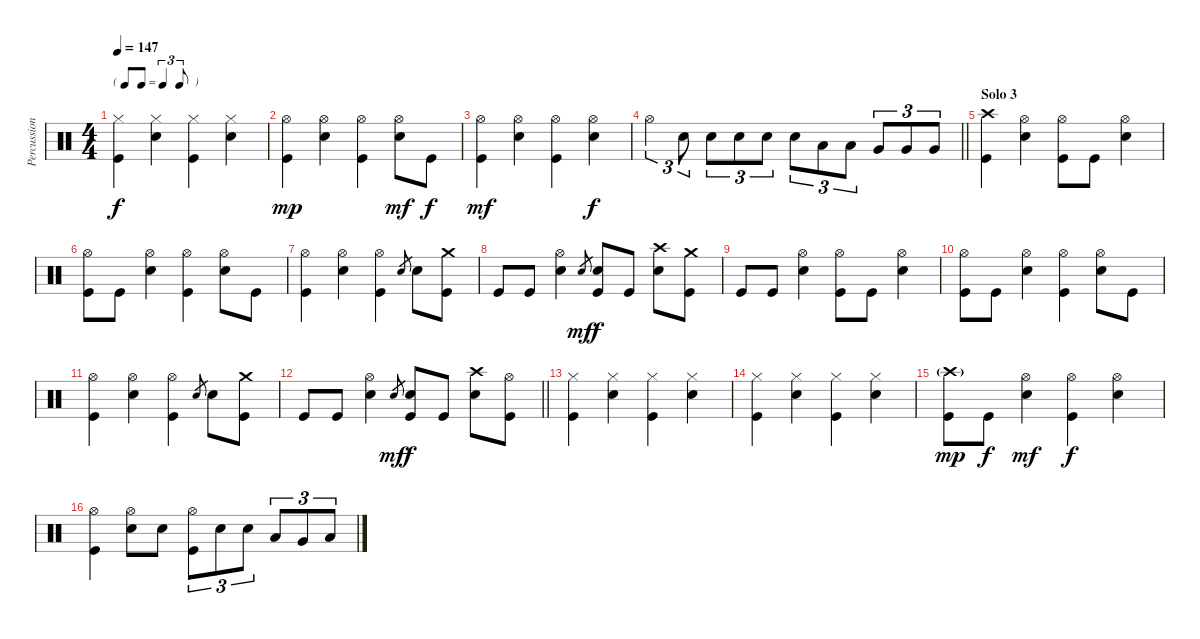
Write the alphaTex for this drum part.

\track ("Percussion" "Percussion") {instrument percussion}
\staff {score}
\articulation defaults
\ts (4 4)
\tf triplet8th
\tempo 147
\clef neutral
\ks c
("Kick (hit)" "Hi-Hat (closed)").4{dy f} ("Hi-Hat (closed)" "Snare (hit) 2").4 ("Kick (hit)" "Hi-Hat (closed)").4 ("Hi-Hat (closed)" "Snare (hit) 2").4 |
("Kick (hit)" "Hi-Hat (open)").4{dy mp} ("Hi-Hat (open)" "Snare (hit) 2").4 ("Kick (hit)" "Hi-Hat (open)").4 ("Hi-Hat (open)" "Snare (hit) 2").8{dy mf} "Kick (hit)".8{dy f} |
("Kick (hit)" "Hi-Hat (open)").4{dy mf} ("Hi-Hat (open)" "Snare (hit) 2").4 ("Kick (hit)" "Hi-Hat (open)").4 ("Hi-Hat (open)" "Snare (hit) 2").4{dy f} |
\barLineRight lightlight "Hi-Hat (open)".4{tu (3 2)} "Snare (hit) 2".8{tu (3 2)} "Snare (hit) 2".8{tu (3 2)} "Snare (hit) 2".8{tu (3 2)} "Snare (hit) 2".8{tu (3 2)} "Snare (hit) 2".8{tu (3 2)} "Low Tom (hit)".8{tu (3 2)} "Low Tom (hit)".8{tu (3 2)} "Very Low Tom (hit)".8{tu (3 2)} "Very Low Tom (hit)".8{tu (3 2)} "Very Low Tom (hit)".8{tu (3 2)}
|
\section ("" "Solo 3")
("Kick (hit)" "Crash high (hit)").4 ("Hi-Hat (open)" "Snare (hit) 2").4 ("Kick (hit)" "Hi-Hat (open)").8 "Kick (hit)".8 ("Hi-Hat (open)" "Snare (hit) 2").4 |
("Kick (hit)" "Hi-Hat (open)").8 "Kick (hit)".8 ("Hi-Hat (open)" "Snare (hit) 2").4 ("Kick (hit)" "Hi-Hat (open)").4 ("Hi-Hat (open)" "Snare (hit) 2").8 "Kick (hit)".8 |
("Kick (hit)" "Hi-Hat (open)").4 ("Hi-Hat (open)" "Snare (hit) 2").4 ("Kick (hit)" "Hi-Hat (open)").4 "Snare (hit) 2".8{gr} "Snare (hit) 2".8 ("Kick (hit)" "Crash medium (hit)").8 |
"Kick (hit)".8 "Kick (hit)".8 ("Hi-Hat (open)" "Snare (hit) 2").4 "Snare (hit) 2".8{gr dy mf} ("Kick (hit)" "Snare (hit) 2").8{dy f} "Kick (hit)".8 ("Crash high (hit)" "Snare (hit) 2").8 ("Kick (hit)" "Crash medium (hit)").8 |
"Kick (hit)".8 "Kick (hit)".8 ("Hi-Hat (open)" "Snare (hit) 2").4 ("Kick (hit)" "Hi-Hat (open)").8 "Kick (hit)".8 ("Hi-Hat (open)" "Snare (hit) 2").4 |
("Kick (hit)" "Hi-Hat (open)").8 "Kick (hit)".8 ("Hi-Hat (open)" "Snare (hit) 2").4 ("Kick (hit)" "Hi-Hat (open)").4 ("Hi-Hat (open)" "Snare (hit) 2").8 "Kick (hit)".8 |
("Kick (hit)" "Hi-Hat (open)").4 ("Hi-Hat (open)" "Snare (hit) 2").4 ("Kick (hit)" "Hi-Hat (open)").4 "Snare (hit) 2".8{gr} "Snare (hit) 2".8 ("Kick (hit)" "Crash medium (hit)").8 |
\barLineRight lightlight "Kick (hit)".8 "Kick (hit)".8
("Hi-Hat (open)" "Snare (hit) 2").4 "Snare (hit) 2".8{gr dy mf} ("Kick (hit)" "Snare (hit) 2").8{dy f} "Kick (hit)".8 ("Crash high (hit)" "Snare (hit) 2").8 ("Kick (hit)" "Hi-Hat (open)").8 |
("Kick (hit)" "Hi-Hat (closed)").4 ("Hi-Hat (closed)" "Snare (hit) 2").4 ("Kick (hit)" "Hi-Hat (closed)").4 ("Hi-Hat (closed)" "Snare (hit) 2").4 |
("Kick (hit)" "Hi-Hat (closed)").4 ("Hi-Hat (closed)" "Snare (hit) 2").4 ("Kick (hit)" "Hi-Hat (closed)").4 ("Hi-Hat (closed)" "Snare (hit) 2").4 |
("Kick (hit)" "Crash high (hit)"{g}).8{dy mp} "Kick (hit)".8{dy f} ("Hi-Hat (open)" "Snare (hit) 2").4{dy mf} ("Kick (hit)" "Hi-Hat (open)").4{dy f} ("Hi-Hat (open)" "Snare (hit) 2").4 |
("Kick (hit)" "Hi-Hat (open)").4 ("Hi-Hat (open)" "Snare (hit) 2").8 "Snare (hit) 2".8 ("Kick (hit)" "Hi-Hat (open)").8{tu (3 2)} "Snare (hit) 2".8{tu (3 2)} "Snare (hit) 2".8{tu (3 2)} "Low Tom (hit)".8{tu (3 2)} "Very Low Tom (hit)".8{tu (3 2)} "Low Floor Tom (hit)".8{tu (3 2)}
